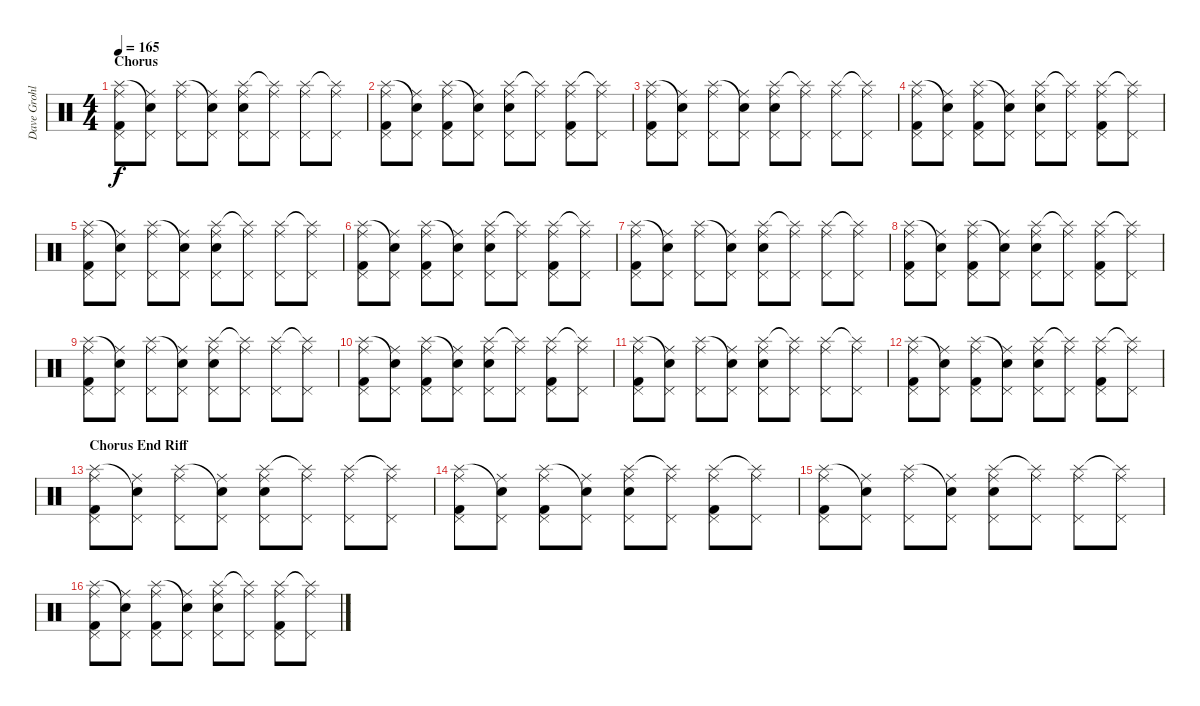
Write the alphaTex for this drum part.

\track ("Dave Grohl" "Dave Grohl") {instrument percussion}
\staff {score}
\articulation defaults
\ts (4 4)
\section ("" "Chorus")
\tempo 165
\clef neutral
\ks c
("Splash (hit)" "Pedal Hi-Hat (hit)" "Ride (middle)" "Kick (hit) 2").8{dy f} ("Snare (hit)"{t} "Pedal Hi-Hat (hit)" "Ride (middle)").8 ("Splash (hit)" "Pedal Hi-Hat (hit)" "Ride (middle)").8 ("Snare (hit)"{t} "Pedal Hi-Hat (hit)" "Ride (middle)").8 ("Splash (hit)" "Pedal Hi-Hat (hit)" "Ride (middle)" "Snare (hit) 2").8 ("Splash (hit)"{t} "Pedal Hi-Hat (hit)" "Ride (middle)").8 ("Splash (hit)" "Pedal Hi-Hat (hit)" "Ride (middle)").8 ("Splash (hit)"{t} "Pedal Hi-Hat (hit)" "Ride (middle)").8 |
("Splash (hit)" "Pedal Hi-Hat (hit)" "Ride (middle)" "Kick (hit) 2").8 ("Snare (hit)"{t} "Pedal Hi-Hat (hit)" "Ride (middle)").8 ("Splash (hit)" "Pedal Hi-Hat (hit)" "Ride (middle)" "Kick (hit) 2").8 ("Snare (hit)"{t} "Pedal Hi-Hat (hit)" "Ride (middle)").8 ("Splash (hit)" "Pedal Hi-Hat (hit)" "Ride (middle)" "Snare (hit) 2").8 ("Splash (hit)"{t} "Pedal Hi-Hat (hit)" "Ride (middle)").8 ("Splash (hit)" "Pedal Hi-Hat (hit)" "Ride (middle)" "Kick (hit) 2").8 ("Splash (hit)"{t} "Pedal Hi-Hat (hit)" "Ride (middle)").8 |
("Splash (hit)" "Pedal Hi-Hat (hit)" "Ride (middle)" "Kick (hit) 2").8 ("Snare (hit)"{t} "Pedal Hi-Hat (hit)" "Ride (middle)").8 ("Splash (hit)" "Pedal Hi-Hat (hit)" "Ride (middle)").8 ("Snare (hit)"{t} "Pedal Hi-Hat (hit)" "Ride (middle)").8 ("Splash (hit)" "Pedal Hi-Hat (hit)" "Ride (middle)" "Snare (hit) 2").8 ("Splash (hit)"{t} "Pedal Hi-Hat (hit)" "Ride (middle)").8 ("Splash (hit)" "Pedal Hi-Hat (hit)" "Ride (middle)").8 ("Splash (hit)"{t} "Pedal Hi-Hat (hit)" "Ride (middle)").8 |
("Splash (hit)" "Pedal Hi-Hat (hit)" "Ride (middle)" "Kick (hit) 2").8 ("Snare (hit)"{t} "Pedal Hi-Hat (hit)" "Ride (middle)").8 ("Splash (hit)" "Pedal Hi-Hat (hit)" "Ride (middle)" "Kick (hit) 2").8 ("Snare (hit)"{t} "Pedal Hi-Hat (hit)" "Ride (middle)").8 ("Splash (hit)" "Pedal Hi-Hat (hit)" "Ride (middle)" "Snare (hit) 2").8 ("Splash (hit)"{t} "Pedal Hi-Hat (hit)" "Ride (middle)").8 ("Splash (hit)" "Pedal Hi-Hat (hit)" "Ride (middle)" "Kick (hit) 2").8 ("Splash (hit)"{t} "Pedal Hi-Hat (hit)" "Ride (middle)").8 |
("Splash (hit)" "Pedal Hi-Hat (hit)" "Ride (middle)" "Kick (hit) 2").8 ("Snare (hit)"{t} "Pedal Hi-Hat (hit)" "Ride (middle)").8 ("Splash (hit)" "Pedal Hi-Hat (hit)" "Ride (middle)").8 ("Snare (hit)"{t} "Pedal Hi-Hat (hit)" "Ride (middle)").8 ("Splash (hit)" "Pedal Hi-Hat (hit)" "Ride (middle)" "Snare (hit) 2").8 ("Splash (hit)"{t} "Pedal Hi-Hat (hit)" "Ride (middle)").8 ("Splash (hit)" "Pedal Hi-Hat (hit)" "Ride (middle)").8 ("Splash (hit)"{t} "Pedal Hi-Hat (hit)" "Ride (middle)").8 |
("Splash (hit)" "Pedal Hi-Hat (hit)" "Ride (middle)" "Kick (hit) 2").8 ("Snare (hit)"{t} "Pedal Hi-Hat (hit)" "Ride (middle)").8 ("Splash (hit)" "Pedal Hi-Hat (hit)" "Ride (middle)" "Kick (hit) 2").8 ("Snare (hit)"{t} "Pedal Hi-Hat (hit)" "Ride (middle)").8 ("Splash (hit)" "Pedal Hi-Hat (hit)" "Ride (middle)" "Snare (hit) 2").8 ("Splash (hit)"{t} "Pedal Hi-Hat (hit)" "Ride (middle)").8 ("Splash (hit)" "Pedal Hi-Hat (hit)" "Ride (middle)" "Kick (hit) 2").8 ("Splash (hit)"{t} "Pedal Hi-Hat (hit)" "Ride (middle)").8 |
("Splash (hit)" "Pedal Hi-Hat (hit)" "Ride (middle)" "Kick (hit) 2").8 ("Snare (hit)"{t} "Pedal Hi-Hat (hit)" "Ride (middle)").8 ("Splash (hit)" "Pedal Hi-Hat (hit)" "Ride (middle)").8 ("Snare (hit)"{t} "Pedal Hi-Hat (hit)" "Ride (middle)").8 ("Splash (hit)" "Pedal Hi-Hat (hit)" "Ride (middle)" "Snare (hit) 2").8 ("Splash (hit)"{t} "Pedal Hi-Hat (hit)" "Ride (middle)").8 ("Splash (hit)" "Pedal Hi-Hat (hit)" "Ride (middle)").8 ("Splash (hit)"{t} "Pedal Hi-Hat (hit)" "Ride (middle)").8 |
("Splash (hit)" "Pedal Hi-Hat (hit)" "Ride (middle)" "Kick (hit) 2").8 ("Snare (hit)"{t} "Pedal Hi-Hat (hit)" "Ride (middle)").8 ("Splash (hit)" "Pedal Hi-Hat (hit)" "Ride (middle)" "Kick (hit) 2").8 ("Snare (hit)"{t} "Pedal Hi-Hat (hit)" "Ride (middle)").8 ("Splash (hit)" "Pedal Hi-Hat (hit)" "Ride (middle)" "Snare (hit) 2").8 ("Splash (hit)"{t} "Pedal Hi-Hat (hit)" "Ride (middle)").8 ("Splash (hit)" "Pedal Hi-Hat (hit)" "Ride (middle)" "Kick (hit) 2").8 ("Splash (hit)"{t} "Pedal Hi-Hat (hit)" "Ride (middle)").8 |
("Splash (hit)" "Pedal Hi-Hat (hit)" "Ride (middle)" "Kick (hit) 2").8 ("Snare (hit)"{t} "Pedal Hi-Hat (hit)" "Ride (middle)").8 ("Splash (hit)" "Pedal Hi-Hat (hit)" "Ride (middle)").8 ("Snare (hit)"{t} "Pedal Hi-Hat (hit)" "Ride (middle)").8 ("Splash (hit)" "Pedal Hi-Hat (hit)" "Ride (middle)" "Snare (hit) 2").8 ("Splash (hit)"{t} "Pedal Hi-Hat (hit)" "Ride (middle)").8 ("Splash (hit)" "Pedal Hi-Hat (hit)" "Ride (middle)").8 ("Splash (hit)"{t} "Pedal Hi-Hat (hit)" "Ride (middle)").8 |
("Splash (hit)" "Pedal Hi-Hat (hit)" "Ride (middle)" "Kick (hit) 2").8 ("Snare (hit)"{t} "Pedal Hi-Hat (hit)" "Ride (middle)").8 ("Splash (hit)" "Pedal Hi-Hat (hit)" "Ride (middle)" "Kick (hit) 2").8 ("Snare (hit)"{t} "Pedal Hi-Hat (hit)" "Ride (middle)").8 ("Splash (hit)" "Pedal Hi-Hat (hit)" "Ride (middle)" "Snare (hit) 2").8 ("Splash (hit)"{t} "Pedal Hi-Hat (hit)" "Ride (middle)").8 ("Splash (hit)" "Pedal Hi-Hat (hit)" "Ride (middle)" "Kick (hit) 2").8 ("Splash (hit)"{t} "Pedal Hi-Hat (hit)" "Ride (middle)").8 |
("Splash (hit)" "Pedal Hi-Hat (hit)" "Ride (middle)" "Kick (hit) 2").8 ("Snare (hit)"{t} "Pedal Hi-Hat (hit)" "Ride (middle)").8 ("Splash (hit)" "Pedal Hi-Hat (hit)" "Ride (middle)").8 ("Snare (hit)"{t} "Pedal Hi-Hat (hit)" "Ride (middle)").8 ("Splash (hit)" "Pedal Hi-Hat (hit)" "Ride (middle)" "Snare (hit) 2").8 ("Splash (hit)"{t} "Pedal Hi-Hat (hit)" "Ride (middle)").8 ("Splash (hit)" "Pedal Hi-Hat (hit)" "Ride (middle)").8 ("Splash (hit)"{t} "Pedal Hi-Hat (hit)" "Ride (middle)").8 |
("Splash (hit)" "Pedal Hi-Hat (hit)" "Ride (middle)" "Kick (hit) 2").8 ("Snare (hit)"{t} "Pedal Hi-Hat (hit)" "Ride (middle)").8 ("Splash (hit)" "Pedal Hi-Hat (hit)" "Ride (middle)" "Kick (hit) 2").8 ("Snare (hit)"{t} "Pedal Hi-Hat (hit)" "Ride (middle)").8 ("Splash (hit)" "Pedal Hi-Hat (hit)" "Ride (middle)" "Snare (hit) 2").8 ("Splash (hit)"{t} "Pedal Hi-Hat (hit)" "Ride (middle)").8 ("Splash (hit)" "Pedal Hi-Hat (hit)" "Ride (middle)" "Kick (hit) 2").8 ("Splash (hit)"{t} "Pedal Hi-Hat (hit)" "Ride (middle)").8 |
\section ("" "Chorus End Riff")
("Splash (hit)" "Pedal Hi-Hat (hit)" "Ride (middle)" "Kick (hit) 2").8 ("Snare (hit)"{t} "Pedal Hi-Hat (hit)" "Ride (middle)").8 ("Splash (hit)" "Pedal Hi-Hat (hit)" "Ride (middle)").8 ("Snare (hit)"{t} "Pedal Hi-Hat (hit)" "Ride (middle)").8 ("Splash (hit)" "Pedal Hi-Hat (hit)" "Ride (middle)" "Snare (hit) 2").8 ("Splash (hit)"{t} "Pedal Hi-Hat (hit)" "Ride (middle)").8 ("Splash (hit)" "Pedal Hi-Hat (hit)" "Ride (middle)").8 ("Splash (hit)"{t} "Pedal Hi-Hat (hit)" "Ride (middle)").8 |
("Splash (hit)" "Pedal Hi-Hat (hit)" "Ride (middle)" "Kick (hit) 2").8 ("Snare (hit)"{t} "Pedal Hi-Hat (hit)" "Ride (middle)").8 ("Splash (hit)" "Pedal Hi-Hat (hit)" "Ride (middle)" "Kick (hit) 2").8 ("Snare (hit)"{t} "Pedal Hi-Hat (hit)" "Ride (middle)").8 ("Splash (hit)" "Pedal Hi-Hat (hit)" "Ride (middle)" "Snare (hit) 2").8 ("Splash (hit)"{t} "Pedal Hi-Hat (hit)" "Ride (middle)").8 ("Splash (hit)" "Pedal Hi-Hat (hit)" "Ride (middle)" "Kick (hit) 2").8 ("Splash (hit)"{t} "Pedal Hi-Hat (hit)" "Ride (middle)").8 |
("Splash (hit)" "Pedal Hi-Hat (hit)" "Ride (middle)" "Kick (hit) 2").8 ("Snare (hit)"{t} "Pedal Hi-Hat (hit)" "Ride (middle)").8 ("Splash (hit)" "Pedal Hi-Hat (hit)" "Ride (middle)").8 ("Snare (hit)"{t} "Pedal Hi-Hat (hit)" "Ride (middle)").8 ("Splash (hit)" "Pedal Hi-Hat (hit)" "Ride (middle)" "Snare (hit) 2").8 ("Splash (hit)"{t} "Pedal Hi-Hat (hit)" "Ride (middle)").8 ("Splash (hit)" "Pedal Hi-Hat (hit)" "Ride (middle)").8 ("Splash (hit)"{t} "Pedal Hi-Hat (hit)" "Ride (middle)").8 |
("Splash (hit)" "Pedal Hi-Hat (hit)" "Ride (middle)" "Kick (hit) 2").8 ("Snare (hit)"{t} "Pedal Hi-Hat (hit)" "Ride (middle)").8 ("Splash (hit)" "Pedal Hi-Hat (hit)" "Ride (middle)" "Kick (hit) 2").8 ("Snare (hit)"{t} "Pedal Hi-Hat (hit)" "Ride (middle)").8 ("Splash (hit)" "Pedal Hi-Hat (hit)" "Ride (middle)" "Snare (hit) 2").8 ("Splash (hit)"{t} "Pedal Hi-Hat (hit)" "Ride (middle)").8 ("Splash (hit)" "Pedal Hi-Hat (hit)" "Ride (middle)" "Kick (hit) 2").8 ("Splash (hit)"{t} "Pedal Hi-Hat (hit)" "Ride (middle)").8
